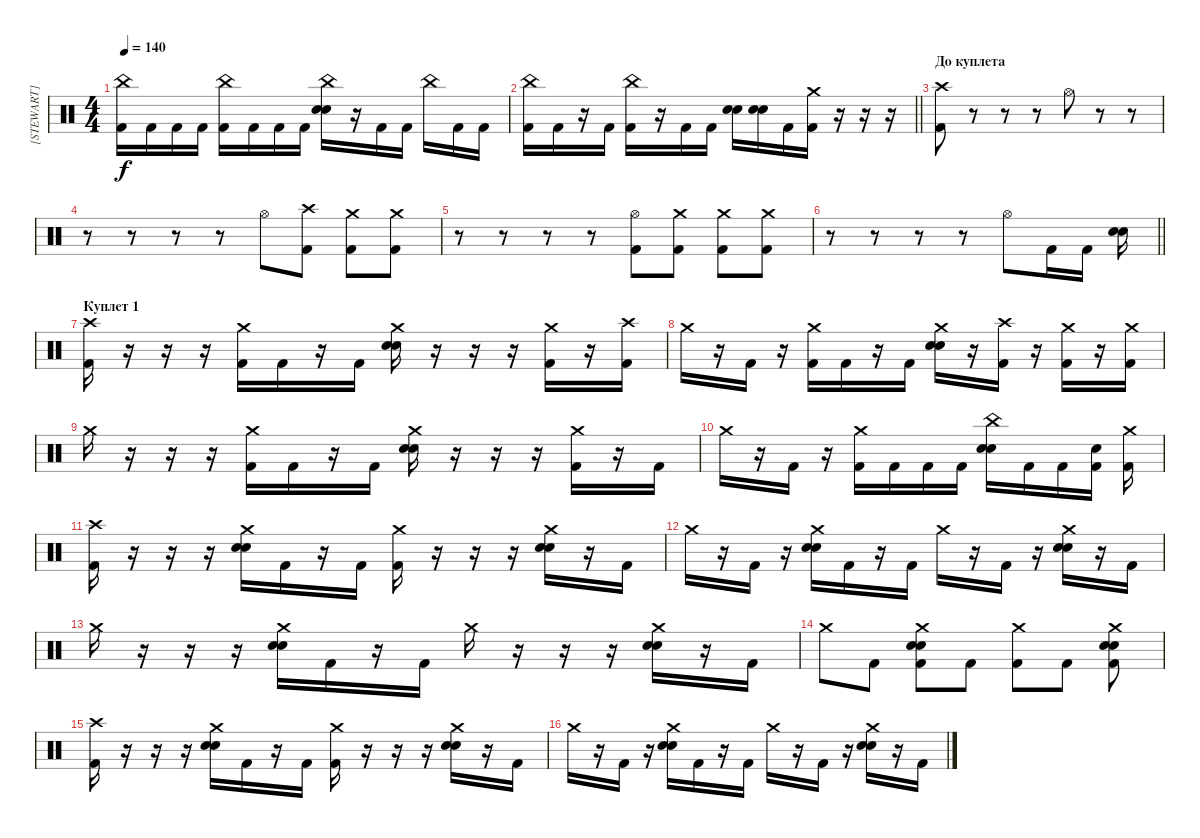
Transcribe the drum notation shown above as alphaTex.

\track ("[STEWART]" "[STEWART]") {instrument percussion}
\staff {score}
\articulation defaults
\ts (4 4)
\tempo 140
\clef neutral
\ks c
("China (hit)" "Kick (hit) 2").16{dy f} "Kick (hit) 2".16 "Kick (hit) 2".16 "Kick (hit) 2".16 ("China (hit)" "Kick (hit) 2").16 "Kick (hit) 2".16 "Kick (hit) 2".16 "Kick (hit) 2".16 ("China (hit)" "Electric Snare (hit)" "Snare (hit) 2").16 r.16 "Kick (hit) 2".16 "Kick (hit) 2".16 "China (hit)".16 "Kick (hit) 2".16 "Kick (hit) 2".16 |
\barLineRight lightlight
("China (hit)" "Kick (hit) 2").16 "Kick (hit) 2".16 r.16 "Kick (hit) 2".16 ("China (hit)" "Kick (hit) 2").16 r.16 "Kick (hit) 2".16 "Kick (hit) 2".16 ("Electric Snare (hit)" "Snare (hit) 2").16 ("Electric Snare (hit)" "Snare (hit) 2").16 "Kick (hit) 2".16 ("Crash medium (hit)" "Kick (hit) 2").16 r.16 r.16 r.16 |
\section ("" "До куплета")
("Crash high (hit)" "Kick (hit) 2").8 r.8 r.8 r.8 "Hi-Hat (open)".8 r.8 r.8 |
r.8 r.8 r.8 r.8 "Hi-Hat (open)".8 ("Crash high (hit)" "Kick (hit) 2").8 ("Crash medium (hit)" "Kick (hit) 2").8 ("Crash medium (hit)" "Kick (hit) 2").8 |
r.8 r.8 r.8 r.8 ("Hi-Hat (open)" "Kick (hit) 2").8 ("Crash medium (hit)" "Kick (hit) 2").8 ("Crash medium (hit)" "Kick (hit) 2").8 ("Crash medium (hit)" "Kick (hit) 2").8 |
\barLineRight lightlight
r.8 r.8 r.8 r.8 "Hi-Hat (open)".8 "Kick (hit) 2".16 "Kick (hit) 2".16 ("Electric Snare (hit)" "Snare (hit) 2").16 |
\section ("" "Куплет 1")
("Crash high (hit)" "Kick (hit) 2").16 r.16 r.16 r.16 ("Crash medium (hit)" "Kick (hit) 2").16 "Kick (hit) 2".16 r.16 "Kick (hit) 2".16 ("Crash medium (hit)" "Electric Snare (hit)" "Snare (hit) 2").16 r.16 r.16 r.16 ("Crash medium (hit)" "Kick (hit) 2").16 r.16 ("Crash high (hit)" "Kick (hit) 2").16 |
"Crash medium (hit)".16 r.16 "Kick (hit) 2".16 r.16 ("Crash medium (hit)" "Kick (hit) 2").16 "Kick (hit) 2".16 r.16 "Kick (hit) 2".16 ("Crash medium (hit)" "Electric Snare (hit)" "Snare (hit) 2").16 r.16 ("Crash high (hit)" "Kick (hit) 2").16 r.16 ("Crash medium (hit)" "Kick (hit) 2").16 r.16 ("Crash medium (hit)" "Kick (hit) 2").16 |
"Crash medium (hit)".16 r.16 r.16 r.16 ("Crash medium (hit)" "Kick (hit) 2").16 "Kick (hit) 2".16 r.16 "Kick (hit) 2".16 ("Crash medium (hit)" "Electric Snare (hit)" "Snare (hit) 2").16 r.16 r.16 r.16 ("Crash medium (hit)" "Kick (hit) 2").16 r.16 "Kick (hit) 2".16 |
"Crash medium (hit)".16 r.16 "Kick (hit) 2".16 r.16 ("Crash medium (hit)" "Kick (hit) 2").16 "Kick (hit) 2".16 "Kick (hit) 2".16 "Kick (hit) 2".16 ("China (hit)" "Electric Snare (hit)" "Snare (hit) 2").16 "Kick (hit) 2".16 "Kick (hit) 2".16 ("Snare (hit) 2" "Kick (hit) 2").16 ("Crash medium (hit)" "Kick (hit) 2").16 |
("Crash high (hit)" "Kick (hit) 2").16 r.16 r.16 r.16 ("Crash medium (hit)" "Electric Snare (hit)" "Snare (hit) 2").16 "Kick (hit) 2".16 r.16 "Kick (hit) 2".16 ("Crash medium (hit)" "Kick (hit) 2").16 r.16 r.16 r.16 ("Crash medium (hit)" "Electric Snare (hit)" "Snare (hit) 2").16 r.16 "Kick (hit) 2".16 |
"Crash medium (hit)".16 r.16 "Kick (hit) 2".16 r.16 ("Crash medium (hit)" "Electric Snare (hit)" "Snare (hit) 2").16 "Kick (hit) 2".16 r.16 "Kick (hit) 2".16 "Crash medium (hit)".16 r.16 "Kick (hit) 2".16 r.16 ("Crash medium (hit)" "Electric Snare (hit)" "Snare (hit) 2").16 r.16 "Kick (hit) 2".16 |
"Crash medium (hit)".16 r.16 r.16 r.16 ("Crash medium (hit)" "Electric Snare (hit)" "Snare (hit) 2").16 "Kick (hit) 2".16 r.16 "Kick (hit) 2".16 "Crash medium (hit)".16 r.16 r.16 r.16 ("Crash medium (hit)" "Electric Snare (hit)" "Snare (hit) 2").16 r.16 "Kick (hit) 2".16 |
"Crash medium (hit)".8 "Kick (hit) 2".8 ("Crash medium (hit)" "Electric Snare (hit)" "Snare (hit) 2" "Kick (hit) 2").8 "Kick (hit) 2".8 ("Crash medium (hit)" "Kick (hit) 2").8 "Kick (hit) 2".8 ("Crash medium (hit)" "Electric Snare (hit)" "Snare (hit) 2" "Kick (hit) 2").8 |
("Crash high (hit)" "Kick (hit) 2").16 r.16 r.16 r.16 ("Crash medium (hit)" "Electric Snare (hit)" "Snare (hit) 2").16 "Kick (hit) 2".16 r.16 "Kick (hit) 2".16 ("Crash medium (hit)" "Kick (hit) 2").16 r.16 r.16 r.16 ("Crash medium (hit)" "Electric Snare (hit)" "Snare (hit) 2").16 r.16 "Kick (hit) 2".16 |
"Crash medium (hit)".16 r.16 "Kick (hit) 2".16 r.16 ("Crash medium (hit)" "Electric Snare (hit)" "Snare (hit) 2").16 "Kick (hit) 2".16 r.16 "Kick (hit) 2".16 "Crash medium (hit)".16 r.16 "Kick (hit) 2".16 r.16 ("Crash medium (hit)" "Electric Snare (hit)" "Snare (hit) 2").16 r.16 "Kick (hit) 2".16
